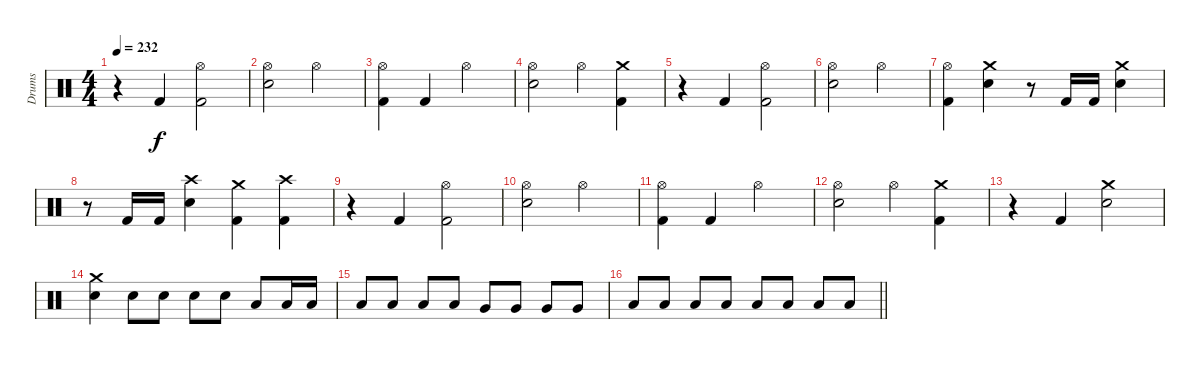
\track ("Drums" "Drums") {instrument percussion}
\staff {score}
\articulation defaults
\ts (4 4)
\tempo 232
\clef neutral
\ks c
r.4{dy f} "Kick (hit) 2".4 ("Kick (hit) 2" "Hi-Hat (open)").2 |
("Hi-Hat (open)" "Electric Snare (hit)").2 "Hi-Hat (open)".2 |
("Hi-Hat (open)" "Kick (hit) 2").4 "Kick (hit) 2".4 "Hi-Hat (open)".2 |
("Hi-Hat (open)" "Electric Snare (hit)").2 "Hi-Hat (open)".4 ("Crash medium (hit)" "Kick (hit) 2").4 |
r.4 "Kick (hit) 2".4 ("Kick (hit) 2" "Hi-Hat (open)").2 |
("Hi-Hat (open)" "Electric Snare (hit)").2 "Hi-Hat (open)".2 |
("Kick (hit) 2" "Hi-Hat (open)").4 ("Electric Snare (hit)" "Crash medium (hit)").4 r.8 "Kick (hit) 2".16 "Kick (hit) 2".16 ("Crash medium (hit)" "Electric Snare (hit)").4 |
r.8 "Kick (hit) 2".16 "Kick (hit) 2".16 ("Crash high (hit)" "Electric Snare (hit)").4 ("Kick (hit) 2" "Crash medium (hit)").4 ("Kick (hit) 2" "Crash high (hit)").4 |
r.4 "Kick (hit) 2".4 ("Kick (hit) 2" "Hi-Hat (open)").2 |
("Hi-Hat (open)" "Electric Snare (hit)").2 "Hi-Hat (open)".2 |
("Hi-Hat (open)" "Kick (hit) 2").4 "Kick (hit) 2".4 "Hi-Hat (open)".2 |
("Hi-Hat (open)" "Electric Snare (hit)").2 "Hi-Hat (open)".4 ("Crash medium (hit)" "Kick (hit) 2").4 |
r.4 "Kick (hit) 2".4 ("Electric Snare (hit)" "Crash medium (hit)").2 |
("Electric Snare (hit)" "Crash medium (hit)").4 "Electric Snare (hit)".8 "Electric Snare (hit)".8 "Electric Snare (hit)".8 "Electric Snare (hit)".8 "Low Tom (hit)".8 "Low Tom (hit)".16 "Low Tom (hit)".16 |
"Low Tom (hit)".8 "Low Tom (hit)".8 "Low Tom (hit)".8 "Low Tom (hit)".8 "Very Low Tom (hit)".8 "Very Low Tom (hit)".8 "Very Low Tom (hit)".8 "Very Low Tom (hit)".8 |
\barLineRight lightlight "Low Floor Tom (hit)".8 "Low Floor Tom (hit)".8 "Low Floor Tom (hit)".8 "Low Floor Tom (hit)".8 "Low Floor Tom (hit)".8 "Low Floor Tom (hit)".8 "Low Floor Tom (hit)".8 "Low Floor Tom (hit)".8
